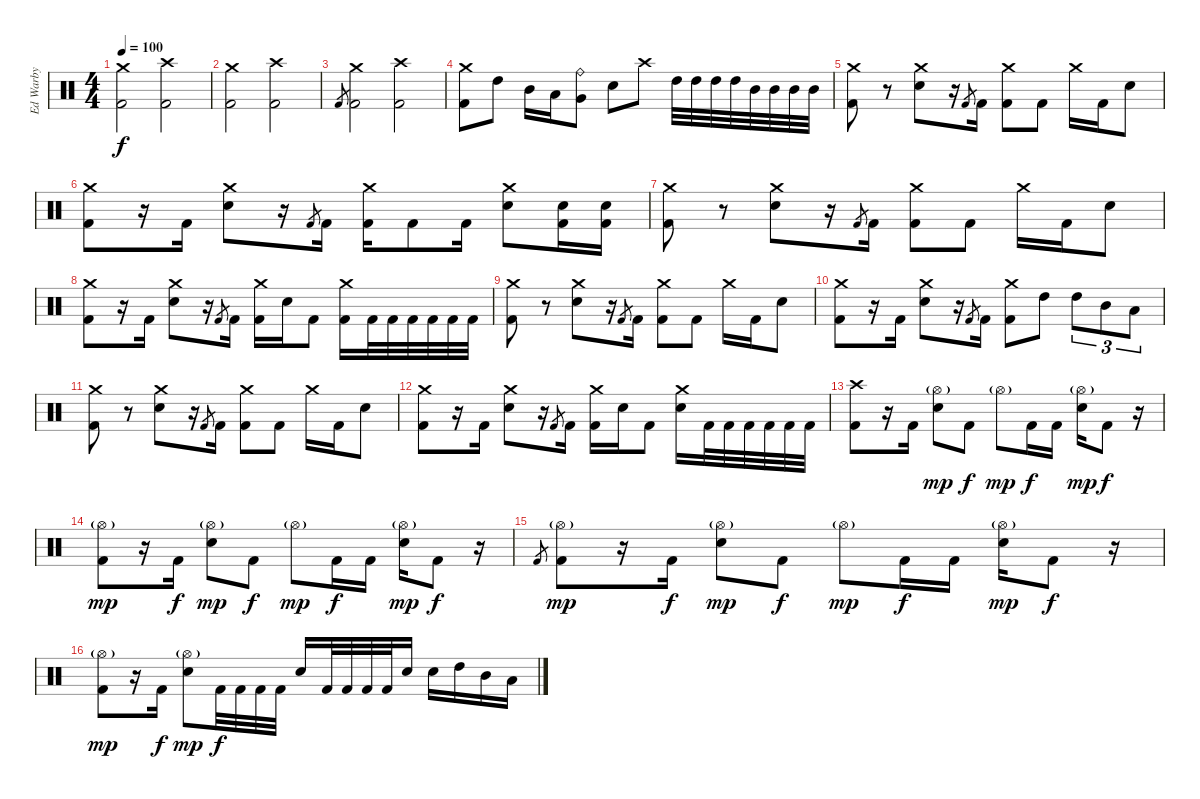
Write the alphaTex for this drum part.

\track ("Ed Warby" "Ed Warby") {instrument percussion}
\staff {score}
\articulation defaults
\ts (4 4)
\tempo 100
\clef neutral
\ks c
("Crash medium (hit)" "Kick (hit) 2").2{dy f} ("Crash high (hit)" "Kick (hit) 2").2 |
("Crash medium (hit)" "Kick (hit) 2").2 ("Crash high (hit)" "Kick (hit) 2").2 |
"Kick (hit) 2".8{gr} ("Crash medium (hit)" "Kick (hit) 2").2 ("Crash high (hit)" "Kick (hit) 2").2 |
("Crash medium (hit)" "Kick (hit) 2").8 "High Tom (hit)".8 "Mid Tom (hit)".16 "Low Tom (hit)".16 ("Ride (bell)" "Very Low Tom (hit)").8 "Electric Snare (hit)".8 "Crash high (hit)".8 "High Tom (hit)".32 "High Tom (hit)".32 "High Tom (hit)".32 "High Tom (hit)".32 "Mid Tom (hit)".32 "Mid Tom (hit)".32 "Mid Tom (hit)".32 "Mid Tom (hit)".32 |
("Crash medium (hit)" "Kick (hit) 2").8 r.8 ("Crash medium (hit)" "Electric Snare (hit)").8 r.16 "Kick (hit) 2".8{gr} "Kick (hit) 2".16 ("Crash medium (hit)" "Kick (hit) 2").8 "Kick (hit) 2".8 "Crash medium (hit)".16 "Kick (hit) 2".16 "Electric Snare (hit)".8 |
("Crash medium (hit)" "Kick (hit) 2").8 r.16 "Kick (hit) 2".16 ("Crash medium (hit)" "Electric Snare (hit)").8 r.16 "Kick (hit) 2".8{gr} "Kick (hit) 2".16 ("Crash medium (hit)" "Kick (hit) 2").16 "Kick (hit) 2".8 "Kick (hit) 2".16 ("Crash medium (hit)" "Electric Snare (hit)").8 ("Electric Snare (hit)" "Kick (hit) 2").16 ("Electric Snare (hit)" "Kick (hit) 2").16 |
("Crash medium (hit)" "Kick (hit) 2").8 r.8 ("Crash medium (hit)" "Electric Snare (hit)").8 r.16 "Kick (hit) 2".8{gr} "Kick (hit) 2".16 ("Crash medium (hit)" "Kick (hit) 2").8 "Kick (hit) 2".8 "Crash medium (hit)".16 "Kick (hit) 2".16 "Electric Snare (hit)".8 |
("Crash medium (hit)" "Kick (hit) 2").8 r.16 "Kick (hit) 2".16 ("Crash medium (hit)" "Electric Snare (hit)").8 r.16 "Kick (hit) 2".8{gr} "Kick (hit) 2".16 ("Crash medium (hit)" "Kick (hit) 2").16 "Electric Snare (hit)".16 "Kick (hit) 2".8 ("Crash medium (hit)" "Kick (hit) 2").16 "Kick (hit) 2".32 "Kick (hit) 2".32 "Kick (hit) 2".32 "Kick (hit) 2".32 "Kick (hit) 2".32 "Kick (hit) 2".32 |
("Crash medium (hit)" "Kick (hit) 2").8 r.8 ("Crash medium (hit)" "Electric Snare (hit)").8 r.16 "Kick (hit) 2".8{gr} "Kick (hit) 2".16 ("Crash medium (hit)" "Kick (hit) 2").8 "Kick (hit) 2".8 "Crash medium (hit)".16 "Kick (hit) 2".16 "Electric Snare (hit)".8 |
("Crash medium (hit)" "Kick (hit) 2").8 r.16 "Kick (hit) 2".16 ("Crash medium (hit)" "Electric Snare (hit)").8 r.16 "Kick (hit) 2".8{gr} "Kick (hit) 2".16 ("Crash medium (hit)" "Kick (hit) 2").8 "High Tom (hit)".8 "High Tom (hit)".8{tu (3 2)} "Mid Tom (hit)".8{tu (3 2)} "Low Tom (hit)".8{tu (3 2)} |
("Crash medium (hit)" "Kick (hit) 2").8 r.8 ("Crash medium (hit)" "Electric Snare (hit)").8 r.16 "Kick (hit) 2".8{gr} "Kick (hit) 2".16 ("Crash medium (hit)" "Kick (hit) 2").8 "Kick (hit) 2".8 "Crash medium (hit)".16 "Kick (hit) 2".16 "Electric Snare (hit)".8 |
("Crash medium (hit)" "Kick (hit) 2").8 r.16 "Kick (hit) 2".16 ("Crash medium (hit)" "Electric Snare (hit)").8 r.16 "Kick (hit) 2".8{gr} "Kick (hit) 2".16 ("Crash medium (hit)" "Kick (hit) 2").16 "Electric Snare (hit)".16 "Kick (hit) 2".8 ("Crash medium (hit)" "Electric Snare (hit)").16 "Kick (hit) 2".32 "Kick (hit) 2".32 "Kick (hit) 2".32 "Kick (hit) 2".32 "Kick (hit) 2".32 "Kick (hit) 2".32 |
("Crash high (hit)" "Kick (hit) 2").8 r.16 "Kick (hit) 2".16 ("Hi-Hat (open)"{g} "Electric Snare (hit)").8{dy mp} "Kick (hit) 2".8{dy f} "Hi-Hat (open)"{g}.8{dy mp} "Kick (hit) 2".16{dy f} "Kick (hit) 2".16 ("Hi-Hat (open)"{g} "Electric Snare (hit)").16{dy mp} "Kick (hit) 2".8{dy f} r.16 |
("Hi-Hat (open)"{g} "Kick (hit) 2").8{dy mp} r.16 "Kick (hit) 2".16{dy f} ("Hi-Hat (open)"{g} "Electric Snare (hit)").8{dy mp} "Kick (hit) 2".8{dy f} "Hi-Hat (open)"{g}.8{dy mp} "Kick (hit) 2".16{dy f} "Kick (hit) 2".16 ("Hi-Hat (open)"{g} "Electric Snare (hit)").16{dy mp} "Kick (hit) 2".8{dy f} r.16 |
"Kick (hit) 2".8{gr} ("Hi-Hat (open)"{g} "Kick (hit) 2").8{dy mp} r.16 "Kick (hit) 2".16{dy f} ("Hi-Hat (open)"{g} "Electric Snare (hit)").8{dy mp} "Kick (hit) 2".8{dy f} "Hi-Hat (open)"{g}.8{dy mp} "Kick (hit) 2".16{dy f} "Kick (hit) 2".16 ("Hi-Hat (open)"{g} "Electric Snare (hit)").16{dy mp} "Kick (hit) 2".8{dy f} r.16 |
("Hi-Hat (open)"{g} "Kick (hit) 2").8{dy mp} r.16 "Kick (hit) 2".16{dy f} ("Hi-Hat (open)"{g} "Electric Snare (hit)").8{dy mp} "Kick (hit) 2".32{dy f} "Kick (hit) 2".32 "Kick (hit) 2".32 "Kick (hit) 2".32 "Electric Snare (hit)".16 "Kick (hit) 2".32 "Kick (hit) 2".32 "Kick (hit) 2".32 "Kick (hit) 2".32 "Electric Snare (hit)".16 "Electric Snare (hit)".16 "High Tom (hit)".16 "Mid Tom (hit)".16 "Low Tom (hit)".16
